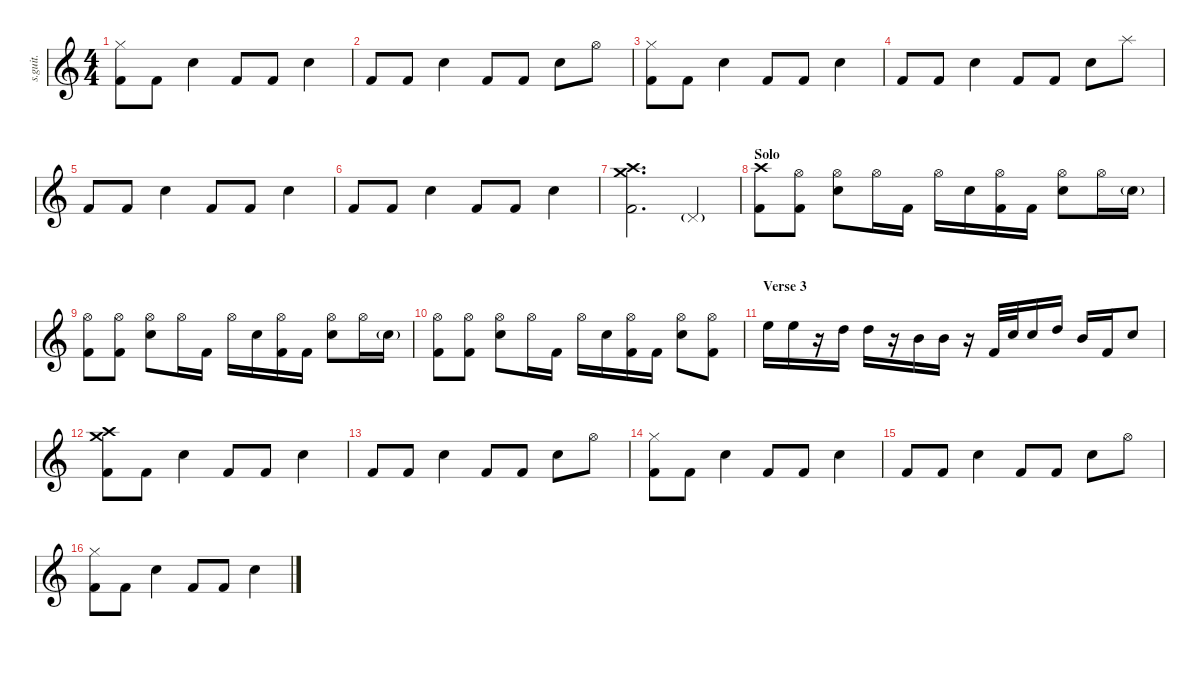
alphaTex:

\defaultSystemsLayout 4
\hideDynamics
\bracketExtendMode nobrackets
\track ("David Lovering" "s.guit.") {instrument percussion}
\staff {score}
\articulation defaults
\ts (4 4)
\tempo (81 hide)
\clef g2
\ks c
("Hi-Hat (closed)" "Kick (hit) 2").8{lyrics (0 "") lyrics (1 "") lyrics (2 "") lyrics (3 "") lyrics (4 "") dy mf} "Kick (hit) 2".8{lyrics (0 "") lyrics (1 "") lyrics (2 "") lyrics (3 "") lyrics (4 "")} "Snare (hit) 2".4{lyrics (0 "") lyrics (1 "") lyrics (2 "") lyrics (3 "") lyrics (4 "")} "Kick (hit) 2".8{lyrics (0 "") lyrics (1 "") lyrics (2 "") lyrics (3 "") lyrics (4 "")} "Kick (hit) 2".8{lyrics (0 "") lyrics (1 "") lyrics (2 "") lyrics (3 "") lyrics (4 "")} "Snare (hit) 2".4{lyrics (0 "") lyrics (1 "") lyrics (2 "") lyrics (3 "") lyrics (4 "")} |
"Kick (hit) 2".8{lyrics (0 "") lyrics (1 "") lyrics (2 "") lyrics (3 "") lyrics (4 "")} "Kick (hit) 2".8{lyrics (0 "") lyrics (1 "") lyrics (2 "") lyrics (3 "") lyrics (4 "")} "Snare (hit) 2".4{lyrics (0 "") lyrics (1 "") lyrics (2 "") lyrics (3 "") lyrics (4 "")} "Kick (hit) 2".8{lyrics (0 "") lyrics (1 "") lyrics (2 "") lyrics (3 "") lyrics (4 "")} "Kick (hit) 2".8{lyrics (0 "") lyrics (1 "") lyrics (2 "") lyrics (3 "") lyrics (4 "")} "Snare (hit) 2".8{lyrics (0 "") lyrics (1 "") lyrics (2 "") lyrics (3 "") lyrics (4 "")} "Hi-Hat (open)".8{lyrics (0 "") lyrics (1 "") lyrics (2 "") lyrics (3 "") lyrics (4 "")} |
("Hi-Hat (closed)" "Kick (hit) 2").8{lyrics (0 "") lyrics (1 "") lyrics (2 "") lyrics (3 "") lyrics (4 "")} "Kick (hit) 2".8{lyrics (0 "") lyrics (1 "") lyrics (2 "") lyrics (3 "") lyrics (4 "")} "Snare (hit) 2".4{lyrics (0 "") lyrics (1 "") lyrics (2 "") lyrics (3 "") lyrics (4 "")} "Kick (hit) 2".8{lyrics (0 "") lyrics (1 "") lyrics (2 "") lyrics (3 "") lyrics (4 "")} "Kick (hit) 2".8{lyrics (0 "") lyrics (1 "") lyrics (2 "") lyrics (3 "") lyrics (4 "")} "Snare (hit) 2".4{lyrics (0 "") lyrics (1 "") lyrics (2 "") lyrics (3 "") lyrics (4 "")} |
"Kick (hit) 2".8{lyrics (0 "") lyrics (1 "") lyrics (2 "") lyrics (3 "") lyrics (4 "")} "Kick (hit) 2".8{lyrics (0 "") lyrics (1 "") lyrics (2 "") lyrics (3 "") lyrics (4 "")} "Snare (hit) 2".4{lyrics (0 "") lyrics (1 "") lyrics (2 "") lyrics (3 "") lyrics (4 "")} "Kick (hit) 2".8{lyrics (0 "") lyrics (1 "") lyrics (2 "") lyrics (3 "") lyrics (4 "")} "Kick (hit) 2".8{lyrics (0 "") lyrics (1 "") lyrics (2 "") lyrics (3 "") lyrics (4 "")} "Snare (hit) 2".8{lyrics (0 "") lyrics (1 "") lyrics (2 "") lyrics (3 "") lyrics (4 "")} "Splash (hit)".8{lyrics (0 "") lyrics (1 "") lyrics (2 "") lyrics (3 "") lyrics (4 "")} |
"Kick (hit) 2".8{lyrics (0 "") lyrics (1 "") lyrics (2 "") lyrics (3 "") lyrics (4 "")} "Kick (hit) 2".8{lyrics (0 "") lyrics (1 "") lyrics (2 "") lyrics (3 "") lyrics (4 "")} "Snare (hit) 2".4{lyrics (0 "") lyrics (1 "") lyrics (2 "") lyrics (3 "") lyrics (4 "")} "Kick (hit) 2".8{lyrics (0 "") lyrics (1 "") lyrics (2 "") lyrics (3 "") lyrics (4 "")} "Kick (hit) 2".8{lyrics (0 "") lyrics (1 "") lyrics (2 "") lyrics (3 "") lyrics (4 "")} "Snare (hit) 2".4{lyrics (0 "") lyrics (1 "") lyrics (2 "") lyrics (3 "") lyrics (4 "")} |
"Kick (hit) 2".8{lyrics (0 "") lyrics (1 "") lyrics (2 "") lyrics (3 "") lyrics (4 "")} "Kick (hit) 2".8{lyrics (0 "") lyrics (1 "") lyrics (2 "") lyrics (3 "") lyrics (4 "")} "Snare (hit) 2".4{lyrics (0 "") lyrics (1 "") lyrics (2 "") lyrics (3 "") lyrics (4 "")} "Kick (hit) 2".8{lyrics (0 "") lyrics (1 "") lyrics (2 "") lyrics (3 "") lyrics (4 "")} "Kick (hit) 2".8{lyrics (0 "") lyrics (1 "") lyrics (2 "") lyrics (3 "") lyrics (4 "")} "Snare (hit) 2".4{lyrics (0 "") lyrics (1 "") lyrics (2 "") lyrics (3 "") lyrics (4 "")} |
("Crash high (hit)" "Crash medium (hit)" "Kick (hit) 2").2{d lyrics (0 "") lyrics (1 "") lyrics (2 "") lyrics (3 "") lyrics (4 "")} "Pedal Hi-Hat (hit)"{g}.4{lyrics (0 "") lyrics (1 "") lyrics (2 "") lyrics (3 "") lyrics (4 "") dy f} |
\section ("" "Solo")
("Crash high (hit)" "Kick (hit) 2").8{lyrics (0 "") lyrics (1 "") lyrics (2 "") lyrics (3 "") lyrics (4 "") dy mf} ("Hi-Hat (open)" "Kick (hit) 2").8{lyrics (0 "") lyrics (1 "") lyrics (2 "") lyrics (3 "") lyrics (4 "")} ("Hi-Hat (open)" "Snare (hit) 2").8{lyrics (0 "") lyrics (1 "") lyrics (2 "") lyrics (3 "") lyrics (4 "")} "Hi-Hat (open)".16{lyrics (0 "") lyrics (1 "") lyrics (2 "") lyrics (3 "") lyrics (4 "")} "Kick (hit) 2".16{lyrics (0 "") lyrics (1 "") lyrics (2 "") lyrics (3 "") lyrics (4 "")} "Hi-Hat (open)".16{lyrics (0 "") lyrics (1 "") lyrics (2 "") lyrics (3 "") lyrics (4 "")} "Snare (hit) 2".16{lyrics (0 "") lyrics (1 "") lyrics (2 "") lyrics (3 "") lyrics (4 "")} ("Hi-Hat (open)" "Kick (hit) 2").16{lyrics (0 "") lyrics (1 "") lyrics (2 "") lyrics (3 "") lyrics (4 "")} "Kick (hit) 2".16{lyrics (0 "") lyrics (1 "") lyrics (2 "") lyrics (3 "") lyrics (4 "")} ("Snare (hit) 2" "Hi-Hat (open)").8{lyrics (0 "") lyrics (1 "") lyrics (2 "") lyrics (3 "") lyrics (4 "")} "Hi-Hat (open)".16{lyrics (0 "") lyrics (1 "") lyrics (2 "") lyrics (3 "") lyrics (4 "")} "Snare (hit) 2"{g}.16{lyrics (0 "") lyrics (1 "") lyrics (2 "") lyrics (3 "") lyrics (4 "") dy f} |
("Hi-Hat (open)" "Kick (hit) 2").8{lyrics (0 "") lyrics (1 "") lyrics (2 "") lyrics (3 "") lyrics (4 "") dy mf} ("Hi-Hat (open)" "Kick (hit) 2").8{lyrics (0 "") lyrics (1 "") lyrics (2 "") lyrics (3 "") lyrics (4 "")} ("Hi-Hat (open)" "Snare (hit) 2").8{lyrics (0 "") lyrics (1 "") lyrics (2 "") lyrics (3 "") lyrics (4 "")} "Hi-Hat (open)".16{lyrics (0 "") lyrics (1 "") lyrics (2 "") lyrics (3 "") lyrics (4 "")} "Kick (hit) 2".16{lyrics (0 "") lyrics (1 "") lyrics (2 "") lyrics (3 "") lyrics (4 "")} "Hi-Hat (open)".16{lyrics (0 "") lyrics (1 "") lyrics (2 "") lyrics (3 "") lyrics (4 "")} "Snare (hit) 2".16{lyrics (0 "") lyrics (1 "") lyrics (2 "") lyrics (3 "") lyrics (4 "")} ("Hi-Hat (open)" "Kick (hit) 2").16{lyrics (0 "") lyrics (1 "") lyrics (2 "") lyrics (3 "") lyrics (4 "")} "Kick (hit) 2".16{lyrics (0 "") lyrics (1 "") lyrics (2 "") lyrics (3 "") lyrics (4 "")} ("Snare (hit) 2" "Hi-Hat (open)").8{lyrics (0 "") lyrics (1 "") lyrics (2 "") lyrics (3 "") lyrics (4 "")} "Hi-Hat (open)".16{lyrics (0 "") lyrics (1 "") lyrics (2 "") lyrics (3 "") lyrics (4 "")} "Snare (hit) 2"{g}.16{lyrics (0 "") lyrics (1 "") lyrics (2 "") lyrics (3 "") lyrics (4 "") dy f} |
("Hi-Hat (open)" "Kick (hit) 2").8{lyrics (0 "") lyrics (1 "") lyrics (2 "") lyrics (3 "") lyrics (4 "") dy mf} ("Hi-Hat (open)" "Kick (hit) 2").8{lyrics (0 "") lyrics (1 "") lyrics (2 "") lyrics (3 "") lyrics (4 "")} ("Hi-Hat (open)" "Snare (hit) 2").8{lyrics (0 "") lyrics (1 "") lyrics (2 "") lyrics (3 "") lyrics (4 "")} "Hi-Hat (open)".16{lyrics (0 "") lyrics (1 "") lyrics (2 "") lyrics (3 "") lyrics (4 "")} "Kick (hit) 2".16{lyrics (0 "") lyrics (1 "") lyrics (2 "") lyrics (3 "") lyrics (4 "")} "Hi-Hat (open)".16{lyrics (0 "") lyrics (1 "") lyrics (2 "") lyrics (3 "") lyrics (4 "")} "Snare (hit) 2".16{lyrics (0 "") lyrics (1 "") lyrics (2 "") lyrics (3 "") lyrics (4 "")} ("Hi-Hat (open)" "Kick (hit) 2").16{lyrics (0 "") lyrics (1 "") lyrics (2 "") lyrics (3 "") lyrics (4 "")} "Kick (hit) 2".16{lyrics (0 "") lyrics (1 "") lyrics (2 "") lyrics (3 "") lyrics (4 "")} ("Snare (hit) 2" "Hi-Hat (open)").8{lyrics (0 "") lyrics (1 "") lyrics (2 "") lyrics (3 "") lyrics (4 "")} ("Hi-Hat (open)" "Kick (hit) 2").8{lyrics (0 "") lyrics (1 "") lyrics (2 "") lyrics (3 "") lyrics (4 "")} |
\section ("" "Verse 3")
"High Floor Tom (hit)".16{lyrics (0 "") lyrics (1 "") lyrics (2 "") lyrics (3 "") lyrics (4 "")} "High Floor Tom (hit)".16{lyrics (0 "") lyrics (1 "") lyrics (2 "") lyrics (3 "") lyrics (4 "")} r.16 "High Tom (hit)".16{lyrics (0 "") lyrics (1 "") lyrics (2 "") lyrics (3 "") lyrics (4 "")} "High Tom (hit)".16{lyrics (0 "") lyrics (1 "") lyrics (2 "") lyrics (3 "") lyrics (4 "")} r.16 "Mid Tom (hit)".16{lyrics (0 "") lyrics (1 "") lyrics (2 "") lyrics (3 "") lyrics (4 "")} "Mid Tom (hit)".16{lyrics (0 "") lyrics (1 "") lyrics (2 "") lyrics (3 "") lyrics (4 "")} r.16 "Kick (hit) 2".32{lyrics (0 "") lyrics (1 "") lyrics (2 "") lyrics (3 "") lyrics (4 "")} "Snare (hit) 2".32{lyrics (0 "") lyrics (1 "") lyrics (2 "") lyrics (3 "") lyrics (4 "")} "Snare (hit) 2".16{lyrics (0 "") lyrics (1 "") lyrics (2 "") lyrics (3 "") lyrics (4 "")} "High Tom (hit)".16{lyrics (0 "") lyrics (1 "") lyrics (2 "") lyrics (3 "") lyrics (4 "")} "Mid Tom (hit)".16{lyrics (0 "") lyrics (1 "") lyrics (2 "") lyrics (3 "") lyrics (4 "")} "Kick (hit) 2".16{lyrics (0 "") lyrics (1 "") lyrics (2 "") lyrics (3 "") lyrics (4 "")} "Snare (hit) 2".8{lyrics (0 "") lyrics (1 "") lyrics (2 "") lyrics (3 "") lyrics (4 "")} |
("Crash high (hit)" "Crash medium (hit)" "Kick (hit) 2").8{lyrics (0 "") lyrics (1 "") lyrics (2 "") lyrics (3 "") lyrics (4 "")} "Kick (hit) 2".8{lyrics (0 "") lyrics (1 "") lyrics (2 "") lyrics (3 "") lyrics (4 "")} "Snare (hit) 2".4{lyrics (0 "") lyrics (1 "") lyrics (2 "") lyrics (3 "") lyrics (4 "")} "Kick (hit) 2".8{lyrics (0 "") lyrics (1 "") lyrics (2 "") lyrics (3 "") lyrics (4 "")} "Kick (hit) 2".8{lyrics (0 "") lyrics (1 "") lyrics (2 "") lyrics (3 "") lyrics (4 "")} "Snare (hit) 2".4{lyrics (0 "") lyrics (1 "") lyrics (2 "") lyrics (3 "") lyrics (4 "")} |
"Kick (hit) 2".8{lyrics (0 "") lyrics (1 "") lyrics (2 "") lyrics (3 "") lyrics (4 "")} "Kick (hit) 2".8{lyrics (0 "") lyrics (1 "") lyrics (2 "") lyrics (3 "") lyrics (4 "")} "Snare (hit) 2".4{lyrics (0 "") lyrics (1 "") lyrics (2 "") lyrics (3 "") lyrics (4 "")} "Kick (hit) 2".8{lyrics (0 "") lyrics (1 "") lyrics (2 "") lyrics (3 "") lyrics (4 "")} "Kick (hit) 2".8{lyrics (0 "") lyrics (1 "") lyrics (2 "") lyrics (3 "") lyrics (4 "")} "Snare (hit) 2".8{lyrics (0 "") lyrics (1 "") lyrics (2 "") lyrics (3 "") lyrics (4 "")} "Hi-Hat (open)".8{lyrics (0 "") lyrics (1 "") lyrics (2 "") lyrics (3 "") lyrics (4 "")} |
("Hi-Hat (closed)" "Kick (hit) 2").8{lyrics (0 "") lyrics (1 "") lyrics (2 "") lyrics (3 "") lyrics (4 "")} "Kick (hit) 2".8{lyrics (0 "") lyrics (1 "") lyrics (2 "") lyrics (3 "") lyrics (4 "")} "Snare (hit) 2".4{lyrics (0 "") lyrics (1 "") lyrics (2 "") lyrics (3 "") lyrics (4 "")} "Kick (hit) 2".8{lyrics (0 "") lyrics (1 "") lyrics (2 "") lyrics (3 "") lyrics (4 "")} "Kick (hit) 2".8{lyrics (0 "") lyrics (1 "") lyrics (2 "") lyrics (3 "") lyrics (4 "")} "Snare (hit) 2".4{lyrics (0 "") lyrics (1 "") lyrics (2 "") lyrics (3 "") lyrics (4 "")} |
"Kick (hit) 2".8{lyrics (0 "") lyrics (1 "") lyrics (2 "") lyrics (3 "") lyrics (4 "")} "Kick (hit) 2".8{lyrics (0 "") lyrics (1 "") lyrics (2 "") lyrics (3 "") lyrics (4 "")} "Snare (hit) 2".4{lyrics (0 "") lyrics (1 "") lyrics (2 "") lyrics (3 "") lyrics (4 "")} "Kick (hit) 2".8{lyrics (0 "") lyrics (1 "") lyrics (2 "") lyrics (3 "") lyrics (4 "")} "Kick (hit) 2".8{lyrics (0 "") lyrics (1 "") lyrics (2 "") lyrics (3 "") lyrics (4 "")} "Snare (hit) 2".8{lyrics (0 "") lyrics (1 "") lyrics (2 "") lyrics (3 "") lyrics (4 "")} "Hi-Hat (open)".8{lyrics (0 "") lyrics (1 "") lyrics (2 "") lyrics (3 "") lyrics (4 "")} |
("Hi-Hat (closed)" "Kick (hit) 2").8{lyrics (0 "") lyrics (1 "") lyrics (2 "") lyrics (3 "") lyrics (4 "")} "Kick (hit) 2".8{lyrics (0 "") lyrics (1 "") lyrics (2 "") lyrics (3 "") lyrics (4 "")} "Snare (hit) 2".4{lyrics (0 "") lyrics (1 "") lyrics (2 "") lyrics (3 "") lyrics (4 "")} "Kick (hit) 2".8{lyrics (0 "") lyrics (1 "") lyrics (2 "") lyrics (3 "") lyrics (4 "")} "Kick (hit) 2".8{lyrics (0 "") lyrics (1 "") lyrics (2 "") lyrics (3 "") lyrics (4 "")} "Snare (hit) 2".4{lyrics (0 "") lyrics (1 "") lyrics (2 "") lyrics (3 "") lyrics (4 "")}
